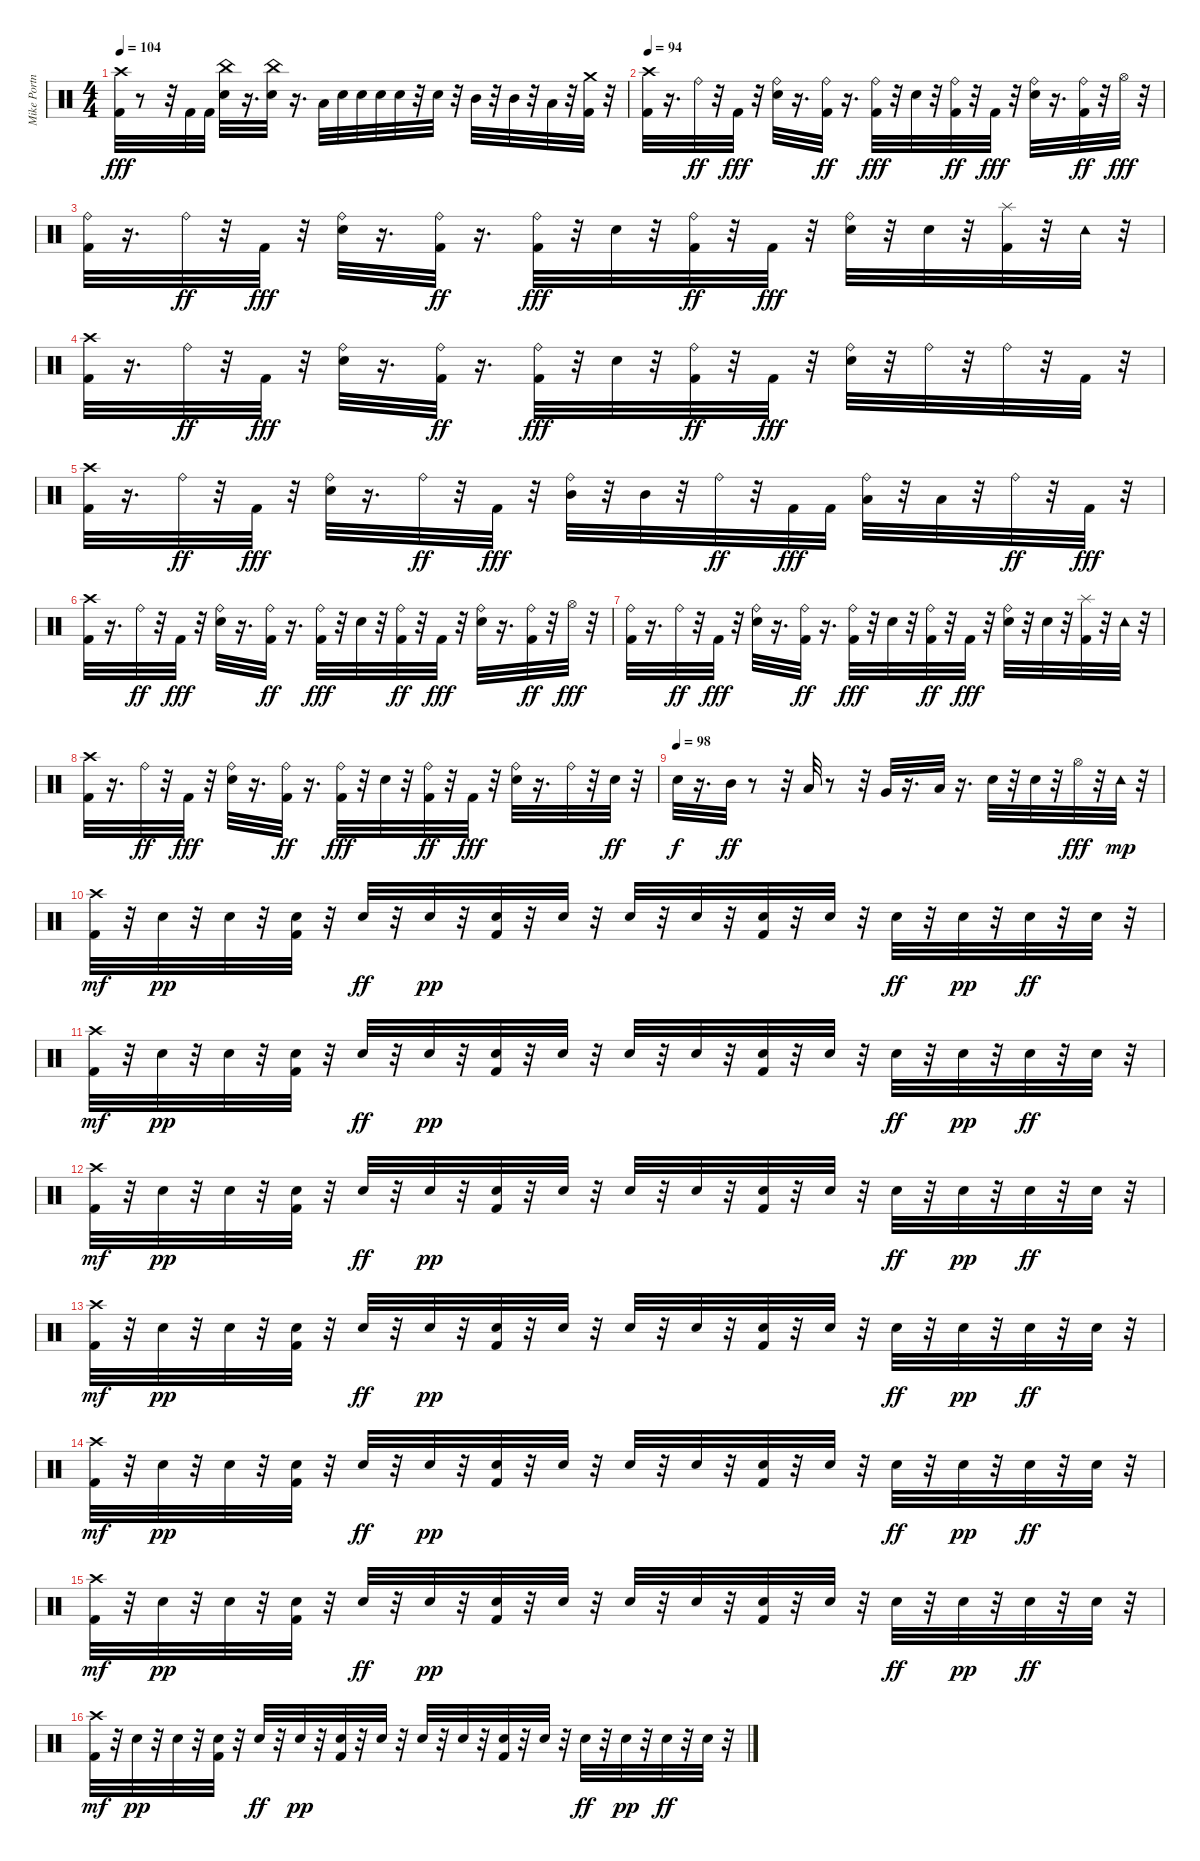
\track ("Mike Portnoy" "Mike Portn") {instrument percussion}
\staff {score}
\articulation defaults
\ts (4 4)
\tempo 104
\clef neutral
\ks c
("Kick (hit) 2" "Crash high (hit)").32{dy fff} r.8 r.32 "Kick (hit) 2".32 "Kick (hit) 2".32 ("Snare (hit) 2" "China (hit)").32 r.16{d} ("Snare (hit) 2" "China (hit)").32 r.16{d} "Low Tom (hit)".32 "Snare (hit) 2".32 "Snare (hit) 2".32 "Snare (hit) 2".32 "Snare (hit) 2".32 r.32 "Snare (hit) 2".32 r.32 "Mid Tom (hit)".32 r.32 "Mid Tom (hit)".32 r.32 "Low Tom (hit)".32 r.32 ("Kick (hit) 2" "Crash medium (hit)").32 r.32 |
\tempo 94
("Kick (hit) 2" "Crash high (hit)").32 r.16{d} "Ride (bell)".32{dy ff} r.32 "Kick (hit) 2".32{dy fff} r.32 ("Ride (bell)" "Snare (hit) 2").32 r.16{d} ("Kick (hit) 2" "Ride (bell)").32{dy ff} r.16{d} ("Kick (hit) 2" "Ride (bell)").32{dy fff} r.32 "Snare (hit) 2".32 r.32 ("Kick (hit) 2" "Ride (bell)").32{dy ff} r.32 "Kick (hit) 2".32{dy fff} r.32 ("Ride (bell)" "Snare (hit) 2").32 r.16{d} ("Kick (hit) 2" "Ride (bell)").32{dy ff} r.32 "Hi-Hat (open)".32{dy fff} r.32 |
("Kick (hit) 2" "Ride (bell)").32 r.16{d} "Ride (bell)".32{dy ff} r.32 "Kick (hit) 2".32{dy fff} r.32 ("Ride (bell)" "Snare (hit) 2").32 r.16{d} ("Kick (hit) 2" "Ride (bell)").32{dy ff} r.16{d} ("Kick (hit) 2" "Ride (bell)").32{dy fff} r.32 "Snare (hit) 2".32 r.32 ("Kick (hit) 2" "Ride (bell)").32{dy ff} r.32 "Kick (hit) 2".32{dy fff} r.32 ("Ride (bell)" "Snare (hit) 2").32 r.32 "Snare (hit) 2".32 r.32 ("Kick (hit) 2" "Splash (hit)").32 r.32 "Tambourine (hit)".32 r.32 |
("Kick (hit) 2" "Crash high (hit)").32 r.16{d} "Ride (bell)".32{dy ff} r.32 "Kick (hit) 2".32{dy fff} r.32 ("Ride (bell)" "Snare (hit) 2").32 r.16{d} ("Kick (hit) 2" "Ride (bell)").32{dy ff} r.16{d} ("Kick (hit) 2" "Ride (bell)").32{dy fff} r.32 "Snare (hit) 2".32 r.32 ("Kick (hit) 2" "Ride (bell)").32{dy ff} r.32 "Kick (hit) 2".32{dy fff} r.32 ("Ride (bell)" "Snare (hit) 2").32 r.32 "Ride (bell)".32 r.32 "Ride (bell)".32 r.32 "Kick (hit) 2".32 r.32 |
("Kick (hit) 2" "Crash high (hit)").32 r.16{d} "Ride (bell)".32{dy ff} r.32 "Kick (hit) 2".32{dy fff} r.32 ("Ride (bell)" "Snare (hit) 2").32 r.16{d} "Ride (bell)".32{dy ff} r.32 "Kick (hit) 2".32{dy fff} r.32 ("Ride (bell)" "Mid Tom (hit)").32 r.32 "Mid Tom (hit)".32 r.32 "Ride (bell)".32{dy ff} r.32 "Kick (hit) 2".32{dy fff} "Kick (hit) 2".32 ("Ride (bell)" "Low Tom (hit)").32 r.32 "Low Tom (hit)".32 r.32 "Ride (bell)".32{dy ff} r.32 "Kick (hit) 2".32{dy fff} r.32 |
("Kick (hit) 2" "Crash high (hit)").32 r.16{d} "Ride (bell)".32{dy ff} r.32 "Kick (hit) 2".32{dy fff} r.32 ("Ride (bell)" "Snare (hit) 2").32 r.16{d} ("Kick (hit) 2" "Ride (bell)").32{dy ff} r.16{d} ("Kick (hit) 2" "Ride (bell)").32{dy fff} r.32 "Snare (hit) 2".32 r.32 ("Kick (hit) 2" "Ride (bell)").32{dy ff} r.32 "Kick (hit) 2".32{dy fff} r.32 ("Ride (bell)" "Snare (hit) 2").32 r.16{d} ("Kick (hit) 2" "Ride (bell)").32{dy ff} r.32 "Hi-Hat (open)".32{dy fff} r.32 |
("Kick (hit) 2" "Ride (bell)").32 r.16{d} "Ride (bell)".32{dy ff} r.32 "Kick (hit) 2".32{dy fff} r.32 ("Ride (bell)" "Snare (hit) 2").32 r.16{d} ("Kick (hit) 2" "Ride (bell)").32{dy ff} r.16{d} ("Kick (hit) 2" "Ride (bell)").32{dy fff} r.32 "Snare (hit) 2".32 r.32 ("Kick (hit) 2" "Ride (bell)").32{dy ff} r.32 "Kick (hit) 2".32{dy fff} r.32 ("Ride (bell)" "Snare (hit) 2").32 r.32 "Snare (hit) 2".32 r.32 ("Kick (hit) 2" "Splash (hit)").32 r.32 "Tambourine (hit)".32 r.32 |
("Kick (hit) 2" "Crash high (hit)").32 r.16{d} "Ride (bell)".32{dy ff} r.32 "Kick (hit) 2".32{dy fff} r.32 ("Ride (bell)" "Snare (hit) 2").32 r.16{d} ("Kick (hit) 2" "Ride (bell)").32{dy ff} r.16{d} ("Kick (hit) 2" "Ride (bell)").32{dy fff} r.32 "Snare (hit) 2".32 r.32 ("Kick (hit) 2" "Ride (bell)").32{dy ff} r.32 "Kick (hit) 2".32{dy fff} r.32 ("Ride (bell)" "Snare (hit) 2").32 r.16{d} "Ride (bell)".32 r.32 "Snare (hit) 2".32{dy ff} r.32 |
\tempo (98)
"Snare (hit) 2".32{dy f} r.16{d} "Mid Tom (hit)".32{dy ff} r.8 r.32 "Low Tom (hit)".32 r.8 r.32 "Very Low Tom (hit)".32 r.16{d} "Low Floor Tom (hit)".32 r.16{d} "Snare (hit) 2".32 r.32 "Snare (hit) 2".32 r.32 "Hi-Hat (open)".32{dy fff} r.32 "Tambourine (hit)".32{dy mp} r.32 |
("Kick (hit) 2" "Crash high (hit)").32{dy mf} r.32 "Snare (hit) 2".32{dy pp} r.32 "Snare (hit) 2".32 r.32 ("Kick (hit) 2" "Snare (hit) 2").32 r.32 "Snare (hit) 2".32{dy ff} r.32 "Snare (hit) 2".32{dy pp} r.32 ("Kick (hit) 2" "Snare (hit) 2").32 r.32 "Snare (hit) 2".32 r.32 "Snare (hit) 2".32 r.32 "Snare (hit) 2".32 r.32 ("Kick (hit) 2" "Snare (hit) 2").32 r.32 "Snare (hit) 2".32 r.32 "Snare (hit) 2".32{dy ff} r.32 "Snare (hit) 2".32{dy pp} r.32 "Snare (hit) 2".32{dy ff} r.32 "Snare (hit) 2".32 r.32 |
("Kick (hit) 2" "Crash high (hit)").32{dy mf} r.32 "Snare (hit) 2".32{dy pp} r.32 "Snare (hit) 2".32 r.32 ("Kick (hit) 2" "Snare (hit) 2").32 r.32 "Snare (hit) 2".32{dy ff} r.32 "Snare (hit) 2".32{dy pp} r.32 ("Kick (hit) 2" "Snare (hit) 2").32 r.32 "Snare (hit) 2".32 r.32 "Snare (hit) 2".32 r.32 "Snare (hit) 2".32 r.32 ("Kick (hit) 2" "Snare (hit) 2").32 r.32 "Snare (hit) 2".32 r.32 "Snare (hit) 2".32{dy ff} r.32 "Snare (hit) 2".32{dy pp} r.32 "Snare (hit) 2".32{dy ff} r.32 "Snare (hit) 2".32 r.32 |
("Kick (hit) 2" "Crash high (hit)").32{dy mf} r.32 "Snare (hit) 2".32{dy pp} r.32 "Snare (hit) 2".32 r.32 ("Kick (hit) 2" "Snare (hit) 2").32 r.32 "Snare (hit) 2".32{dy ff} r.32 "Snare (hit) 2".32{dy pp} r.32 ("Kick (hit) 2" "Snare (hit) 2").32 r.32 "Snare (hit) 2".32 r.32 "Snare (hit) 2".32 r.32 "Snare (hit) 2".32 r.32 ("Kick (hit) 2" "Snare (hit) 2").32 r.32 "Snare (hit) 2".32 r.32 "Snare (hit) 2".32{dy ff} r.32 "Snare (hit) 2".32{dy pp} r.32 "Snare (hit) 2".32{dy ff} r.32 "Snare (hit) 2".32 r.32 |
("Kick (hit) 2" "Crash high (hit)").32{dy mf} r.32 "Snare (hit) 2".32{dy pp} r.32 "Snare (hit) 2".32 r.32 ("Kick (hit) 2" "Snare (hit) 2").32 r.32 "Snare (hit) 2".32{dy ff} r.32 "Snare (hit) 2".32{dy pp} r.32 ("Kick (hit) 2" "Snare (hit) 2").32 r.32 "Snare (hit) 2".32 r.32 "Snare (hit) 2".32 r.32 "Snare (hit) 2".32 r.32 ("Kick (hit) 2" "Snare (hit) 2").32 r.32 "Snare (hit) 2".32 r.32 "Snare (hit) 2".32{dy ff} r.32 "Snare (hit) 2".32{dy pp} r.32 "Snare (hit) 2".32{dy ff} r.32 "Snare (hit) 2".32 r.32 |
("Kick (hit) 2" "Crash high (hit)").32{dy mf} r.32 "Snare (hit) 2".32{dy pp} r.32 "Snare (hit) 2".32 r.32 ("Kick (hit) 2" "Snare (hit) 2").32 r.32 "Snare (hit) 2".32{dy ff} r.32 "Snare (hit) 2".32{dy pp} r.32 ("Kick (hit) 2" "Snare (hit) 2").32 r.32 "Snare (hit) 2".32 r.32 "Snare (hit) 2".32 r.32 "Snare (hit) 2".32 r.32 ("Kick (hit) 2" "Snare (hit) 2").32 r.32 "Snare (hit) 2".32 r.32 "Snare (hit) 2".32{dy ff} r.32 "Snare (hit) 2".32{dy pp} r.32 "Snare (hit) 2".32{dy ff} r.32 "Snare (hit) 2".32 r.32 |
("Kick (hit) 2" "Crash high (hit)").32{dy mf} r.32 "Snare (hit) 2".32{dy pp} r.32 "Snare (hit) 2".32 r.32 ("Kick (hit) 2" "Snare (hit) 2").32 r.32 "Snare (hit) 2".32{dy ff} r.32 "Snare (hit) 2".32{dy pp} r.32 ("Kick (hit) 2" "Snare (hit) 2").32 r.32 "Snare (hit) 2".32 r.32 "Snare (hit) 2".32 r.32 "Snare (hit) 2".32 r.32 ("Kick (hit) 2" "Snare (hit) 2").32 r.32 "Snare (hit) 2".32 r.32 "Snare (hit) 2".32{dy ff} r.32 "Snare (hit) 2".32{dy pp} r.32 "Snare (hit) 2".32{dy ff} r.32 "Snare (hit) 2".32 r.32 |
("Kick (hit) 2" "Crash high (hit)").32{dy mf} r.32 "Snare (hit) 2".32{dy pp} r.32 "Snare (hit) 2".32 r.32 ("Kick (hit) 2" "Snare (hit) 2").32 r.32 "Snare (hit) 2".32{dy ff} r.32 "Snare (hit) 2".32{dy pp} r.32 ("Kick (hit) 2" "Snare (hit) 2").32 r.32 "Snare (hit) 2".32 r.32 "Snare (hit) 2".32 r.32 "Snare (hit) 2".32 r.32 ("Kick (hit) 2" "Snare (hit) 2").32 r.32 "Snare (hit) 2".32 r.32 "Snare (hit) 2".32{dy ff} r.32 "Snare (hit) 2".32{dy pp} r.32 "Snare (hit) 2".32{dy ff} r.32 "Snare (hit) 2".32 r.32
